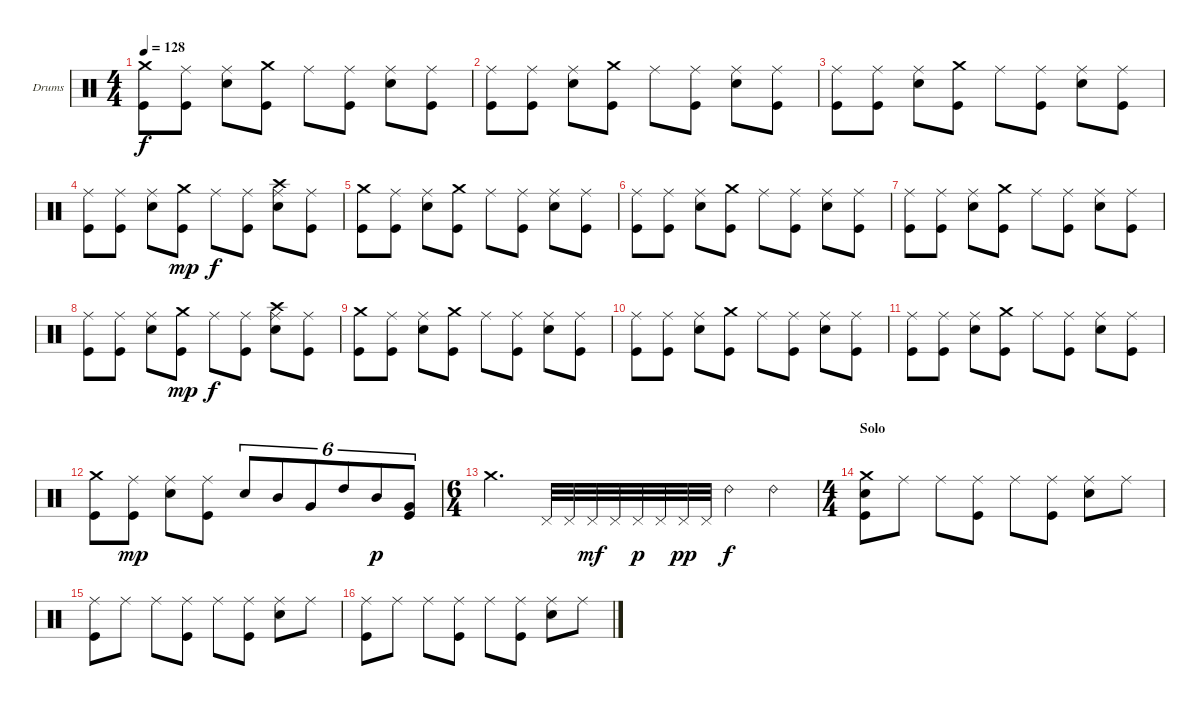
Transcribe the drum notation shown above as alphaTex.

\defaultSystemsLayout 4
\bracketExtendMode nobrackets
\firstSystemTrackNameOrientation horizontal
\otherSystemsTrackNameOrientation horizontal
\track ("Dave Krusen" "Drums") {instrument percussion}
\staff {score}
\articulation defaults
\ts (4 4)
\tempo 128
\clef neutral
\ks c
("Crash medium (hit)" "Kick (hit)").8{dy f} ("Ride (middle)" "Kick (hit)").8 ("Ride (middle)" "Snare (hit) 2").8 ("Crash medium (hit)" "Kick (hit)").8 "Ride (middle)".8 ("Ride (middle)" "Kick (hit)").8 ("Ride (middle)" "Snare (hit) 2").8 ("Ride (middle)" "Kick (hit)").8 |
("Ride (middle)" "Kick (hit)").8 ("Ride (middle)" "Kick (hit)").8 ("Ride (middle)" "Snare (hit) 2").8 ("Crash medium (hit)" "Kick (hit)").8 "Ride (middle)".8 ("Ride (middle)" "Kick (hit)").8 ("Ride (middle)" "Snare (hit) 2").8 ("Ride (middle)" "Kick (hit)").8 |
("Ride (middle)" "Kick (hit)").8 ("Ride (middle)" "Kick (hit)").8 ("Ride (middle)" "Snare (hit) 2").8 ("Crash medium (hit)" "Kick (hit)").8 "Ride (middle)".8 ("Ride (middle)" "Kick (hit)").8 ("Ride (middle)" "Snare (hit) 2").8 ("Ride (middle)" "Kick (hit)").8 |
("Ride (middle)" "Kick (hit)").8 ("Ride (middle)" "Kick (hit)").8 ("Ride (middle)" "Snare (hit) 2").8 ("Crash medium (hit)" "Kick (hit)").8{dy mp} "Ride (middle)".8{dy f} ("Ride (middle)" "Kick (hit)").8 ("Crash high (hit)" "Ride (middle)" "Snare (hit) 2").8 ("Ride (middle)" "Kick (hit)").8 |
("Crash medium (hit)" "Kick (hit)").8 ("Ride (middle)" "Kick (hit)").8 ("Ride (middle)" "Snare (hit) 2").8 ("Crash medium (hit)" "Kick (hit)").8 "Ride (middle)".8 ("Ride (middle)" "Kick (hit)").8 ("Ride (middle)" "Snare (hit) 2").8 ("Ride (middle)" "Kick (hit)").8 |
("Ride (middle)" "Kick (hit)").8 ("Ride (middle)" "Kick (hit)").8 ("Ride (middle)" "Snare (hit) 2").8 ("Crash medium (hit)" "Kick (hit)").8 "Ride (middle)".8 ("Ride (middle)" "Kick (hit)").8 ("Ride (middle)" "Snare (hit) 2").8 ("Ride (middle)" "Kick (hit)").8 |
("Ride (middle)" "Kick (hit)").8 ("Ride (middle)" "Kick (hit)").8 ("Ride (middle)" "Snare (hit) 2").8 ("Crash medium (hit)" "Kick (hit)").8 "Ride (middle)".8 ("Ride (middle)" "Kick (hit)").8 ("Ride (middle)" "Snare (hit) 2").8 ("Ride (middle)" "Kick (hit)").8 |
("Ride (middle)" "Kick (hit)").8 ("Ride (middle)" "Kick (hit)").8 ("Ride (middle)" "Snare (hit) 2").8 ("Crash medium (hit)" "Kick (hit)").8{dy mp} "Ride (middle)".8{dy f} ("Ride (middle)" "Kick (hit)").8 ("Crash high (hit)" "Ride (middle)" "Snare (hit) 2").8 ("Ride (middle)" "Kick (hit)").8 |
("Crash medium (hit)" "Kick (hit)").8 ("Ride (middle)" "Kick (hit)").8 ("Ride (middle)" "Snare (hit) 2").8 ("Crash medium (hit)" "Kick (hit)").8 "Ride (middle)".8 ("Ride (middle)" "Kick (hit)").8 ("Ride (middle)" "Snare (hit) 2").8 ("Ride (middle)" "Kick (hit)").8 |
("Ride (middle)" "Kick (hit)").8 ("Ride (middle)" "Kick (hit)").8 ("Ride (middle)" "Snare (hit) 2").8 ("Crash medium (hit)" "Kick (hit)").8 "Ride (middle)".8 ("Ride (middle)" "Kick (hit)").8 ("Ride (middle)" "Snare (hit) 2").8 ("Ride (middle)" "Kick (hit)").8 |
("Ride (middle)" "Kick (hit)").8 ("Ride (middle)" "Kick (hit)").8 ("Ride (middle)" "Snare (hit) 2").8 ("Crash medium (hit)" "Kick (hit)").8 "Ride (middle)".8 ("Ride (middle)" "Kick (hit)").8 ("Ride (middle)" "Snare (hit) 2").8 ("Ride (middle)" "Kick (hit)").8 |
("Crash medium (hit)" "Kick (hit)").8 ("Ride (middle)" "Kick (hit)").8{dy mp} ("Ride (middle)" "Snare (hit) 2").8 ("Ride (middle)" "Kick (hit)").8 "Snare (hit) 2".8{tu (6 4)} "Mid Tom (hit)".8{tu (6 4)} "Very Low Tom (hit)".8{tu (6 4)} "High Tom (hit)".8{tu (6 4)} "Mid Tom (hit)".8{tu (6 4) dy p} ("Very Low Tom (hit)" "Kick (hit)").8{tu (6 4)} |
\ts (6 4)
"Crash medium (hit)".2{d} "Pedal Hi-Hat (hit)".32 "Pedal Hi-Hat (hit)".32 "Pedal Hi-Hat (hit)".32{dy mf} "Pedal Hi-Hat (hit)".32 "Pedal Hi-Hat (hit)".32{dy p} "Pedal Hi-Hat (hit)".32 "Pedal Hi-Hat (hit)".32{dy pp} "Pedal Hi-Hat (hit)".32 "Ride (bell) 2".4{dy f} "Ride (bell) 2".4 |
\ts (4 4)
\section ("" "Solo")
("Crash medium (hit)" "Snare (hit) 2" "Kick (hit)").8 "Ride (middle)".8 "Ride (middle)".8 ("Ride (middle)" "Kick (hit)").8 "Ride (middle)".8 ("Ride (middle)" "Kick (hit)").8 ("Ride (middle)" "Snare (hit) 2").8 "Ride (middle)".8 |
("Ride (middle)" "Kick (hit)").8 "Ride (middle)".8 "Ride (middle)".8 ("Ride (middle)" "Kick (hit)").8 "Ride (middle)".8 ("Ride (middle)" "Kick (hit)").8 ("Ride (middle)" "Snare (hit) 2").8 "Ride (middle)".8 |
("Ride (middle)" "Kick (hit)").8 "Ride (middle)".8 "Ride (middle)".8 ("Ride (middle)" "Kick (hit)").8 "Ride (middle)".8 ("Ride (middle)" "Kick (hit)").8 ("Ride (middle)" "Snare (hit) 2").8 "Ride (middle)".8
